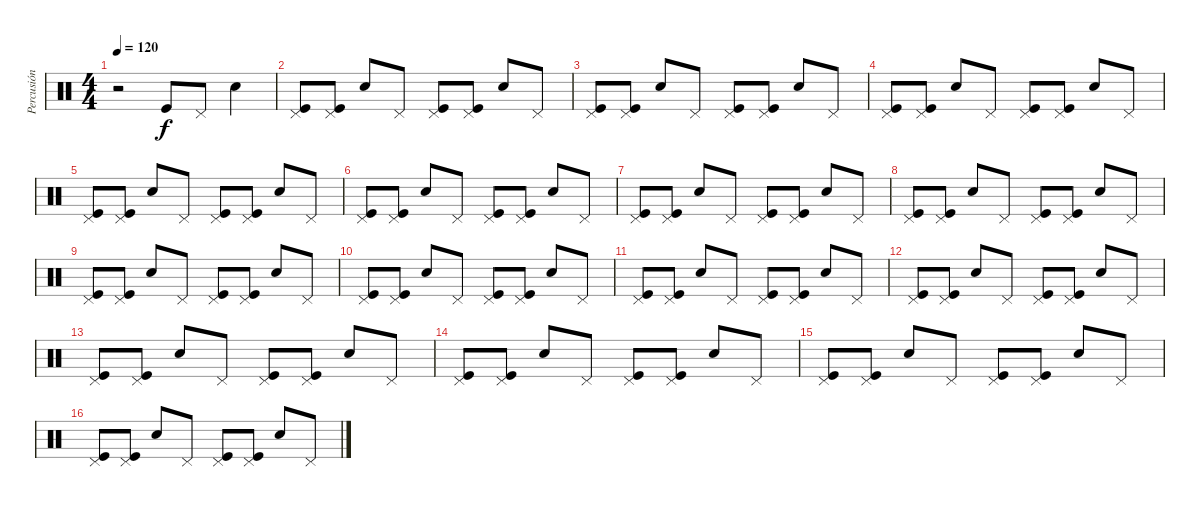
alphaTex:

\track ("Percusión" "Percusión") {instrument percussion}
\staff {score}
\articulation defaults
\ts (4 4)
\tempo 120
\clef neutral
\ks c
r.2{dy f} "Kick (hit)".8 "Pedal Hi-Hat (hit)".8 "Electric Snare (hit)".4 |
("Pedal Hi-Hat (hit)" "Kick (hit)").8 ("Pedal Hi-Hat (hit)" "Kick (hit)").8 "Electric Snare (hit)".8 "Pedal Hi-Hat (hit)".8 ("Pedal Hi-Hat (hit)" "Kick (hit)").8 ("Pedal Hi-Hat (hit)" "Kick (hit)").8 "Electric Snare (hit)".8 "Pedal Hi-Hat (hit)".8 |
("Pedal Hi-Hat (hit)" "Kick (hit)").8 ("Pedal Hi-Hat (hit)" "Kick (hit)").8 "Electric Snare (hit)".8 "Pedal Hi-Hat (hit)".8 ("Pedal Hi-Hat (hit)" "Kick (hit)").8 ("Pedal Hi-Hat (hit)" "Kick (hit)").8 "Electric Snare (hit)".8 "Pedal Hi-Hat (hit)".8 |
("Pedal Hi-Hat (hit)" "Kick (hit)").8 ("Pedal Hi-Hat (hit)" "Kick (hit)").8 "Electric Snare (hit)".8 "Pedal Hi-Hat (hit)".8 ("Pedal Hi-Hat (hit)" "Kick (hit)").8 ("Pedal Hi-Hat (hit)" "Kick (hit)").8 "Electric Snare (hit)".8 "Pedal Hi-Hat (hit)".8 |
("Pedal Hi-Hat (hit)" "Kick (hit)").8 ("Pedal Hi-Hat (hit)" "Kick (hit)").8 "Electric Snare (hit)".8 "Pedal Hi-Hat (hit)".8 ("Pedal Hi-Hat (hit)" "Kick (hit)").8 ("Pedal Hi-Hat (hit)" "Kick (hit)").8 "Electric Snare (hit)".8 "Pedal Hi-Hat (hit)".8 |
("Pedal Hi-Hat (hit)" "Kick (hit)").8 ("Pedal Hi-Hat (hit)" "Kick (hit)").8 "Electric Snare (hit)".8 "Pedal Hi-Hat (hit)".8 ("Pedal Hi-Hat (hit)" "Kick (hit)").8 ("Pedal Hi-Hat (hit)" "Kick (hit)").8 "Electric Snare (hit)".8 "Pedal Hi-Hat (hit)".8 |
("Pedal Hi-Hat (hit)" "Kick (hit)").8 ("Pedal Hi-Hat (hit)" "Kick (hit)").8 "Electric Snare (hit)".8 "Pedal Hi-Hat (hit)".8 ("Pedal Hi-Hat (hit)" "Kick (hit)").8 ("Pedal Hi-Hat (hit)" "Kick (hit)").8 "Electric Snare (hit)".8 "Pedal Hi-Hat (hit)".8 |
("Pedal Hi-Hat (hit)" "Kick (hit)").8 ("Pedal Hi-Hat (hit)" "Kick (hit)").8 "Electric Snare (hit)".8 "Pedal Hi-Hat (hit)".8 ("Pedal Hi-Hat (hit)" "Kick (hit)").8 ("Pedal Hi-Hat (hit)" "Kick (hit)").8 "Electric Snare (hit)".8 "Pedal Hi-Hat (hit)".8 |
("Pedal Hi-Hat (hit)" "Kick (hit)").8 ("Pedal Hi-Hat (hit)" "Kick (hit)").8 "Electric Snare (hit)".8 "Pedal Hi-Hat (hit)".8 ("Pedal Hi-Hat (hit)" "Kick (hit)").8 ("Pedal Hi-Hat (hit)" "Kick (hit)").8 "Electric Snare (hit)".8 "Pedal Hi-Hat (hit)".8 |
("Pedal Hi-Hat (hit)" "Kick (hit)").8 ("Pedal Hi-Hat (hit)" "Kick (hit)").8 "Electric Snare (hit)".8 "Pedal Hi-Hat (hit)".8 ("Pedal Hi-Hat (hit)" "Kick (hit)").8 ("Pedal Hi-Hat (hit)" "Kick (hit)").8 "Electric Snare (hit)".8 "Pedal Hi-Hat (hit)".8 |
("Pedal Hi-Hat (hit)" "Kick (hit)").8 ("Pedal Hi-Hat (hit)" "Kick (hit)").8 "Electric Snare (hit)".8 "Pedal Hi-Hat (hit)".8 ("Pedal Hi-Hat (hit)" "Kick (hit)").8 ("Pedal Hi-Hat (hit)" "Kick (hit)").8 "Electric Snare (hit)".8 "Pedal Hi-Hat (hit)".8 |
("Pedal Hi-Hat (hit)" "Kick (hit)").8 ("Pedal Hi-Hat (hit)" "Kick (hit)").8 "Electric Snare (hit)".8 "Pedal Hi-Hat (hit)".8 ("Pedal Hi-Hat (hit)" "Kick (hit)").8 ("Pedal Hi-Hat (hit)" "Kick (hit)").8 "Electric Snare (hit)".8 "Pedal Hi-Hat (hit)".8 |
("Pedal Hi-Hat (hit)" "Kick (hit)").8 ("Pedal Hi-Hat (hit)" "Kick (hit)").8 "Electric Snare (hit)".8 "Pedal Hi-Hat (hit)".8 ("Pedal Hi-Hat (hit)" "Kick (hit)").8 ("Pedal Hi-Hat (hit)" "Kick (hit)").8 "Electric Snare (hit)".8 "Pedal Hi-Hat (hit)".8 |
("Pedal Hi-Hat (hit)" "Kick (hit)").8 ("Pedal Hi-Hat (hit)" "Kick (hit)").8 "Electric Snare (hit)".8 "Pedal Hi-Hat (hit)".8 ("Pedal Hi-Hat (hit)" "Kick (hit)").8 ("Pedal Hi-Hat (hit)" "Kick (hit)").8 "Electric Snare (hit)".8 "Pedal Hi-Hat (hit)".8 |
("Pedal Hi-Hat (hit)" "Kick (hit)").8 ("Pedal Hi-Hat (hit)" "Kick (hit)").8 "Electric Snare (hit)".8 "Pedal Hi-Hat (hit)".8 ("Pedal Hi-Hat (hit)" "Kick (hit)").8 ("Pedal Hi-Hat (hit)" "Kick (hit)").8 "Electric Snare (hit)".8 "Pedal Hi-Hat (hit)".8 |
("Pedal Hi-Hat (hit)" "Kick (hit)").8 ("Pedal Hi-Hat (hit)" "Kick (hit)").8 "Electric Snare (hit)".8 "Pedal Hi-Hat (hit)".8 ("Pedal Hi-Hat (hit)" "Kick (hit)").8 ("Pedal Hi-Hat (hit)" "Kick (hit)").8 "Electric Snare (hit)".8 "Pedal Hi-Hat (hit)".8
